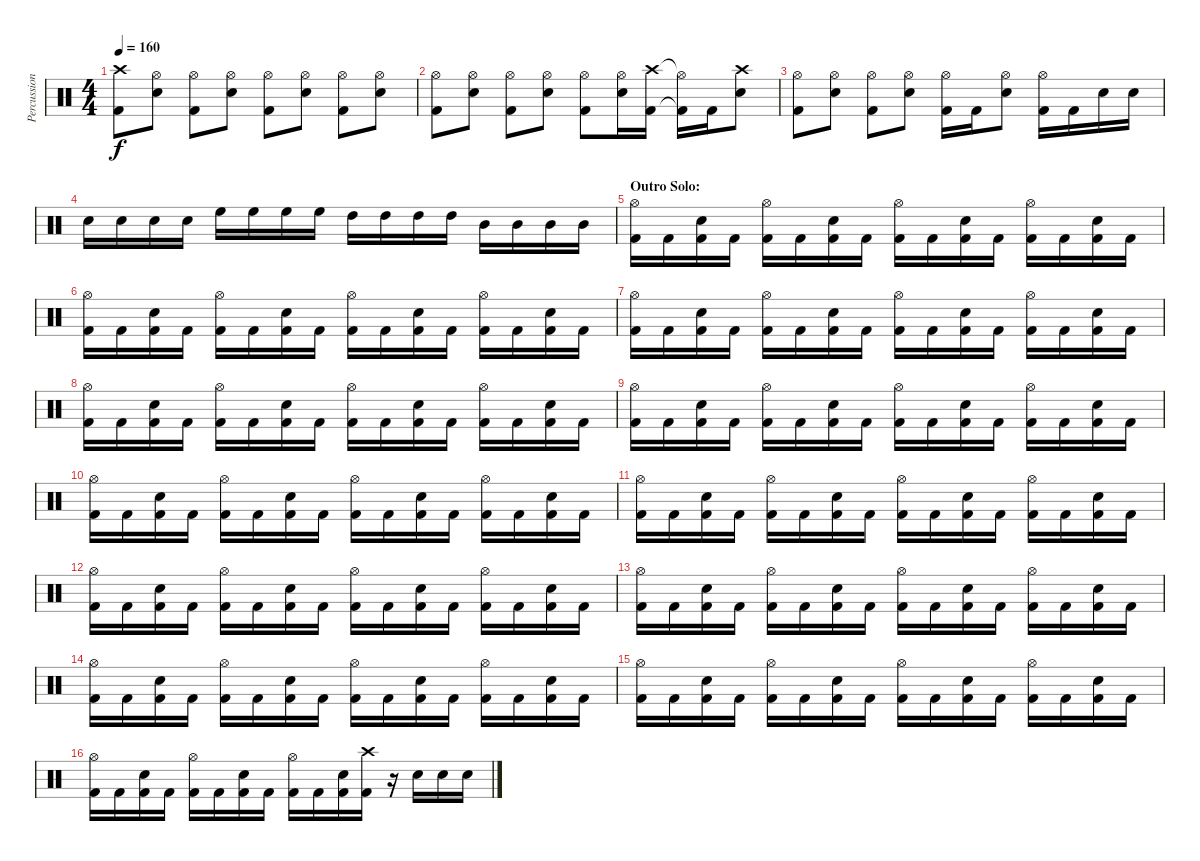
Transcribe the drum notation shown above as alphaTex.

\track ("Percussion" "Percussion") {instrument percussion}
\staff {score}
\articulation defaults
\ts (4 4)
\tempo 160
\clef neutral
\ks c
("Crash high (hit)" "Kick (hit) 2").8{dy f} ("Hi-Hat (open)" "Snare (hit) 2").8 ("Hi-Hat (open)" "Kick (hit) 2").8 ("Hi-Hat (open)" "Snare (hit) 2").8 ("Hi-Hat (open)" "Kick (hit) 2").8 ("Hi-Hat (open)" "Snare (hit) 2").8 ("Hi-Hat (open)" "Kick (hit) 2").8 ("Hi-Hat (open)" "Snare (hit) 2").8 |
("Hi-Hat (open)" "Kick (hit) 2").8 ("Hi-Hat (open)" "Snare (hit) 2").8 ("Hi-Hat (open)" "Kick (hit) 2").8 ("Hi-Hat (open)" "Snare (hit) 2").8 ("Hi-Hat (open)" "Kick (hit) 2").8 ("Hi-Hat (open)" "Snare (hit) 2").16 ("Crash high (hit)" "Kick (hit) 2").16 ("Hi-Hat (open)"{t} "Kick (hit) 2"{t}).16 "Kick (hit) 2".16 ("Crash high (hit)" "Snare (hit) 2").8 |
("Hi-Hat (open)" "Kick (hit) 2").8 ("Hi-Hat (open)" "Snare (hit) 2").8 ("Hi-Hat (open)" "Kick (hit) 2").8 ("Hi-Hat (open)" "Snare (hit) 2").8 ("Hi-Hat (open)" "Kick (hit) 2").16 "Kick (hit) 2".16 ("Hi-Hat (open)" "Snare (hit) 2").8 ("Hi-Hat (open)" "Kick (hit) 2").16 "Kick (hit) 2".16 "Snare (hit) 2".16 "Snare (hit) 2".16 |
"Snare (hit) 2".16 "Snare (hit) 2".16 "Snare (hit) 2".16 "Snare (hit) 2".16 "High Floor Tom (hit)".16 "High Floor Tom (hit)".16 "High Floor Tom (hit)".16 "High Floor Tom (hit)".16 "High Tom (hit)".16 "High Tom (hit)".16 "High Tom (hit)".16 "High Tom (hit)".16 "Mid Tom (hit)".16 "Mid Tom (hit)".16 "Mid Tom (hit)".16 "Mid Tom (hit)".16 |
\section ("" "Outro Solo:")
("Hi-Hat (open)" "Kick (hit) 2").16 "Kick (hit) 2".16 ("Snare (hit) 2" "Kick (hit) 2").16 "Kick (hit) 2".16 ("Hi-Hat (open)" "Kick (hit) 2").16 "Kick (hit) 2".16 ("Snare (hit) 2" "Kick (hit) 2").16 "Kick (hit) 2".16 ("Hi-Hat (open)" "Kick (hit) 2").16 "Kick (hit) 2".16 ("Snare (hit) 2" "Kick (hit) 2").16 "Kick (hit) 2".16 ("Hi-Hat (open)" "Kick (hit) 2").16 "Kick (hit) 2".16 ("Snare (hit) 2" "Kick (hit) 2").16 "Kick (hit) 2".16 |
("Hi-Hat (open)" "Kick (hit) 2").16 "Kick (hit) 2".16 ("Snare (hit) 2" "Kick (hit) 2").16 "Kick (hit) 2".16 ("Hi-Hat (open)" "Kick (hit) 2").16 "Kick (hit) 2".16 ("Snare (hit) 2" "Kick (hit) 2").16 "Kick (hit) 2".16 ("Hi-Hat (open)" "Kick (hit) 2").16 "Kick (hit) 2".16 ("Snare (hit) 2" "Kick (hit) 2").16 "Kick (hit) 2".16 ("Hi-Hat (open)" "Kick (hit) 2").16 "Kick (hit) 2".16 ("Snare (hit) 2" "Kick (hit) 2").16 "Kick (hit) 2".16 |
("Hi-Hat (open)" "Kick (hit) 2").16 "Kick (hit) 2".16 ("Snare (hit) 2" "Kick (hit) 2").16 "Kick (hit) 2".16 ("Hi-Hat (open)" "Kick (hit) 2").16 "Kick (hit) 2".16 ("Snare (hit) 2" "Kick (hit) 2").16 "Kick (hit) 2".16 ("Hi-Hat (open)" "Kick (hit) 2").16 "Kick (hit) 2".16 ("Snare (hit) 2" "Kick (hit) 2").16 "Kick (hit) 2".16 ("Hi-Hat (open)" "Kick (hit) 2").16 "Kick (hit) 2".16 ("Snare (hit) 2" "Kick (hit) 2").16 "Kick (hit) 2".16 |
("Hi-Hat (open)" "Kick (hit) 2").16 "Kick (hit) 2".16 ("Snare (hit) 2" "Kick (hit) 2").16 "Kick (hit) 2".16 ("Hi-Hat (open)" "Kick (hit) 2").16 "Kick (hit) 2".16 ("Snare (hit) 2" "Kick (hit) 2").16 "Kick (hit) 2".16 ("Hi-Hat (open)" "Kick (hit) 2").16 "Kick (hit) 2".16 ("Snare (hit) 2" "Kick (hit) 2").16 "Kick (hit) 2".16 ("Hi-Hat (open)" "Kick (hit) 2").16 "Kick (hit) 2".16 ("Snare (hit) 2" "Kick (hit) 2").16 "Kick (hit) 2".16 |
("Hi-Hat (open)" "Kick (hit) 2").16 "Kick (hit) 2".16 ("Snare (hit) 2" "Kick (hit) 2").16 "Kick (hit) 2".16 ("Hi-Hat (open)" "Kick (hit) 2").16 "Kick (hit) 2".16 ("Snare (hit) 2" "Kick (hit) 2").16 "Kick (hit) 2".16 ("Hi-Hat (open)" "Kick (hit) 2").16 "Kick (hit) 2".16 ("Snare (hit) 2" "Kick (hit) 2").16 "Kick (hit) 2".16 ("Hi-Hat (open)" "Kick (hit) 2").16 "Kick (hit) 2".16 ("Snare (hit) 2" "Kick (hit) 2").16 "Kick (hit) 2".16 |
("Hi-Hat (open)" "Kick (hit) 2").16 "Kick (hit) 2".16 ("Snare (hit) 2" "Kick (hit) 2").16 "Kick (hit) 2".16 ("Hi-Hat (open)" "Kick (hit) 2").16 "Kick (hit) 2".16 ("Snare (hit) 2" "Kick (hit) 2").16 "Kick (hit) 2".16 ("Hi-Hat (open)" "Kick (hit) 2").16 "Kick (hit) 2".16 ("Snare (hit) 2" "Kick (hit) 2").16 "Kick (hit) 2".16 ("Hi-Hat (open)" "Kick (hit) 2").16 "Kick (hit) 2".16 ("Snare (hit) 2" "Kick (hit) 2").16 "Kick (hit) 2".16 |
("Hi-Hat (open)" "Kick (hit) 2").16 "Kick (hit) 2".16 ("Snare (hit) 2" "Kick (hit) 2").16 "Kick (hit) 2".16 ("Hi-Hat (open)" "Kick (hit) 2").16 "Kick (hit) 2".16 ("Snare (hit) 2" "Kick (hit) 2").16 "Kick (hit) 2".16 ("Hi-Hat (open)" "Kick (hit) 2").16 "Kick (hit) 2".16 ("Snare (hit) 2" "Kick (hit) 2").16 "Kick (hit) 2".16 ("Hi-Hat (open)" "Kick (hit) 2").16 "Kick (hit) 2".16 ("Snare (hit) 2" "Kick (hit) 2").16 "Kick (hit) 2".16 |
("Hi-Hat (open)" "Kick (hit) 2").16 "Kick (hit) 2".16 ("Snare (hit) 2" "Kick (hit) 2").16 "Kick (hit) 2".16 ("Hi-Hat (open)" "Kick (hit) 2").16 "Kick (hit) 2".16 ("Snare (hit) 2" "Kick (hit) 2").16 "Kick (hit) 2".16 ("Hi-Hat (open)" "Kick (hit) 2").16 "Kick (hit) 2".16 ("Snare (hit) 2" "Kick (hit) 2").16 "Kick (hit) 2".16 ("Hi-Hat (open)" "Kick (hit) 2").16 "Kick (hit) 2".16 ("Snare (hit) 2" "Kick (hit) 2").16 "Kick (hit) 2".16 |
("Hi-Hat (open)" "Kick (hit) 2").16 "Kick (hit) 2".16 ("Snare (hit) 2" "Kick (hit) 2").16 "Kick (hit) 2".16 ("Hi-Hat (open)" "Kick (hit) 2").16 "Kick (hit) 2".16 ("Snare (hit) 2" "Kick (hit) 2").16 "Kick (hit) 2".16 ("Hi-Hat (open)" "Kick (hit) 2").16 "Kick (hit) 2".16 ("Snare (hit) 2" "Kick (hit) 2").16 "Kick (hit) 2".16 ("Hi-Hat (open)" "Kick (hit) 2").16 "Kick (hit) 2".16 ("Snare (hit) 2" "Kick (hit) 2").16 "Kick (hit) 2".16 |
("Hi-Hat (open)" "Kick (hit) 2").16 "Kick (hit) 2".16 ("Snare (hit) 2" "Kick (hit) 2").16 "Kick (hit) 2".16 ("Hi-Hat (open)" "Kick (hit) 2").16 "Kick (hit) 2".16 ("Snare (hit) 2" "Kick (hit) 2").16 "Kick (hit) 2".16 ("Hi-Hat (open)" "Kick (hit) 2").16 "Kick (hit) 2".16 ("Snare (hit) 2" "Kick (hit) 2").16 "Kick (hit) 2".16 ("Hi-Hat (open)" "Kick (hit) 2").16 "Kick (hit) 2".16 ("Snare (hit) 2" "Kick (hit) 2").16 "Kick (hit) 2".16 |
("Hi-Hat (open)" "Kick (hit) 2").16 "Kick (hit) 2".16 ("Snare (hit) 2" "Kick (hit) 2").16 "Kick (hit) 2".16 ("Hi-Hat (open)" "Kick (hit) 2").16 "Kick (hit) 2".16 ("Snare (hit) 2" "Kick (hit) 2").16 "Kick (hit) 2".16 ("Hi-Hat (open)" "Kick (hit) 2").16 "Kick (hit) 2".16 ("Snare (hit) 2" "Kick (hit) 2").16 "Kick (hit) 2".16 ("Hi-Hat (open)" "Kick (hit) 2").16 "Kick (hit) 2".16 ("Snare (hit) 2" "Kick (hit) 2").16 "Kick (hit) 2".16 |
("Hi-Hat (open)" "Kick (hit) 2").16 "Kick (hit) 2".16 ("Snare (hit) 2" "Kick (hit) 2").16 "Kick (hit) 2".16 ("Hi-Hat (open)" "Kick (hit) 2").16 "Kick (hit) 2".16 ("Snare (hit) 2" "Kick (hit) 2").16 "Kick (hit) 2".16 ("Hi-Hat (open)" "Kick (hit) 2").16 "Kick (hit) 2".16 ("Snare (hit) 2" "Kick (hit) 2").16 ("Crash high (hit)" "Kick (hit) 2").16 r.16 "Snare (hit) 2".16 "Snare (hit) 2".16 "Snare (hit) 2".16
